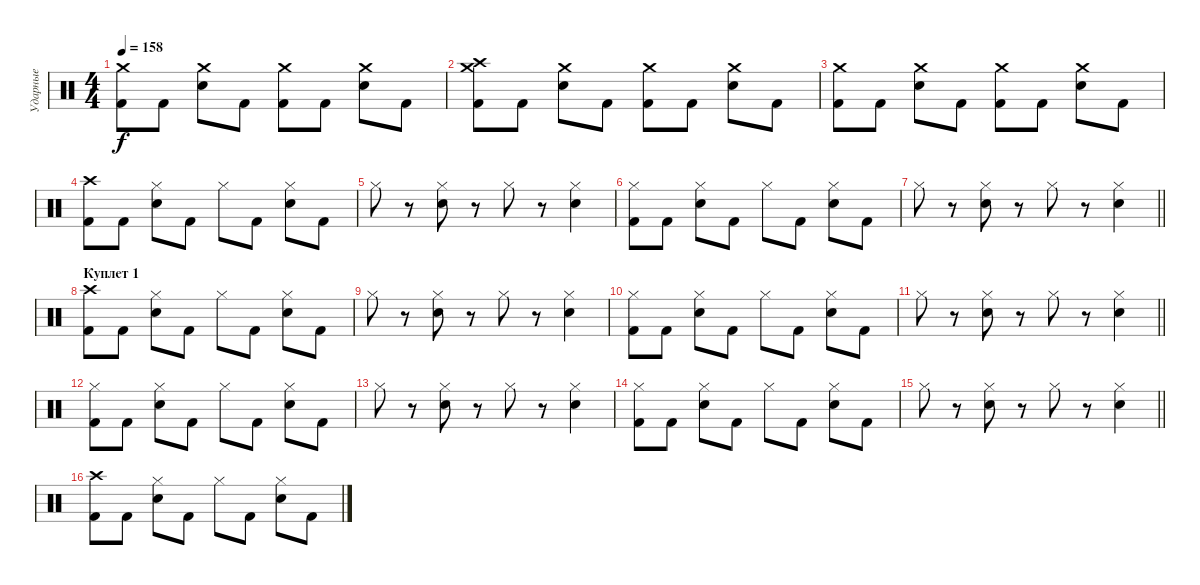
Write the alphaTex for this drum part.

\track ("Ударные" "Ударные") {instrument percussion}
\staff {score}
\articulation defaults
\ts (4 4)
\tempo 158
\clef neutral
\ks c
("Crash medium (hit)" "Kick (hit) 2").8{dy f} "Kick (hit) 2".8 ("Crash medium (hit)" "Electric Snare (hit)").8 "Kick (hit) 2".8 ("Crash medium (hit)" "Kick (hit) 2").8 "Kick (hit) 2".8 ("Crash medium (hit)" "Electric Snare (hit)").8 "Kick (hit) 2".8 |
("Crash medium (hit)" "Crash high (hit)" "Kick (hit) 2").8 "Kick (hit) 2".8 ("Crash medium (hit)" "Electric Snare (hit)").8 "Kick (hit) 2".8 ("Crash medium (hit)" "Kick (hit) 2").8 "Kick (hit) 2".8 ("Crash medium (hit)" "Electric Snare (hit)").8 "Kick (hit) 2".8 |
("Crash medium (hit)" "Kick (hit) 2").8 "Kick (hit) 2".8 ("Crash medium (hit)" "Electric Snare (hit)").8 "Kick (hit) 2".8 ("Crash medium (hit)" "Kick (hit) 2").8 "Kick (hit) 2".8 ("Crash medium (hit)" "Electric Snare (hit)").8 "Kick (hit) 2".8 |
("Crash high (hit)" "Kick (hit) 2").8 "Kick (hit) 2".8 ("Hi-Hat (closed)" "Electric Snare (hit)").8 "Kick (hit) 2".8 "Hi-Hat (closed)".8 "Kick (hit) 2".8 ("Hi-Hat (closed)" "Electric Snare (hit)").8 "Kick (hit) 2".8 |
"Hi-Hat (closed)".8 r.8 ("Hi-Hat (closed)" "Electric Snare (hit)").8 r.8 "Hi-Hat (closed)".8 r.8 ("Hi-Hat (closed)" "Electric Snare (hit)").4 |
("Hi-Hat (closed)" "Kick (hit) 2").8 "Kick (hit) 2".8 ("Hi-Hat (closed)" "Electric Snare (hit)").8 "Kick (hit) 2".8 "Hi-Hat (closed)".8 "Kick (hit) 2".8 ("Hi-Hat (closed)" "Electric Snare (hit)").8 "Kick (hit) 2".8 |
\barLineRight lightlight "Hi-Hat (closed)".8
r.8 ("Hi-Hat (closed)" "Electric Snare (hit)").8 r.8 "Hi-Hat (closed)".8 r.8 ("Hi-Hat (closed)" "Electric Snare (hit)").4 |
\section ("" "Куплет 1")
("Crash high (hit)" "Kick (hit) 2").8 "Kick (hit) 2".8 ("Hi-Hat (closed)" "Electric Snare (hit)").8 "Kick (hit) 2".8 "Hi-Hat (closed)".8 "Kick (hit) 2".8 ("Hi-Hat (closed)" "Electric Snare (hit)").8 "Kick (hit) 2".8 |
"Hi-Hat (closed)".8 r.8 ("Hi-Hat (closed)" "Electric Snare (hit)").8 r.8 "Hi-Hat (closed)".8 r.8 ("Hi-Hat (closed)" "Electric Snare (hit)").4 |
("Hi-Hat (closed)" "Kick (hit) 2").8 "Kick (hit) 2".8 ("Hi-Hat (closed)" "Electric Snare (hit)").8 "Kick (hit) 2".8 "Hi-Hat (closed)".8 "Kick (hit) 2".8 ("Hi-Hat (closed)" "Electric Snare (hit)").8 "Kick (hit) 2".8 |
\barLineRight lightlight "Hi-Hat (closed)".8
r.8 ("Hi-Hat (closed)" "Electric Snare (hit)").8 r.8 "Hi-Hat (closed)".8 r.8 ("Hi-Hat (closed)" "Electric Snare (hit)").4 |
("Hi-Hat (closed)" "Kick (hit) 2").8 "Kick (hit) 2".8 ("Hi-Hat (closed)" "Electric Snare (hit)").8 "Kick (hit) 2".8 "Hi-Hat (closed)".8 "Kick (hit) 2".8 ("Hi-Hat (closed)" "Electric Snare (hit)").8 "Kick (hit) 2".8 |
"Hi-Hat (closed)".8 r.8 ("Hi-Hat (closed)" "Electric Snare (hit)").8 r.8 "Hi-Hat (closed)".8 r.8 ("Hi-Hat (closed)" "Electric Snare (hit)").4 |
("Hi-Hat (closed)" "Kick (hit) 2").8 "Kick (hit) 2".8 ("Hi-Hat (closed)" "Electric Snare (hit)").8 "Kick (hit) 2".8 "Hi-Hat (closed)".8 "Kick (hit) 2".8 ("Hi-Hat (closed)" "Electric Snare (hit)").8 "Kick (hit) 2".8 |
\barLineRight lightlight "Hi-Hat (closed)".8
r.8 ("Hi-Hat (closed)" "Electric Snare (hit)").8 r.8 "Hi-Hat (closed)".8 r.8 ("Hi-Hat (closed)" "Electric Snare (hit)").4 |
("Crash high (hit)" "Kick (hit) 2").8 "Kick (hit) 2".8 ("Hi-Hat (closed)" "Electric Snare (hit)").8 "Kick (hit) 2".8 "Hi-Hat (closed)".8 "Kick (hit) 2".8 ("Hi-Hat (closed)" "Electric Snare (hit)").8 "Kick (hit) 2".8
